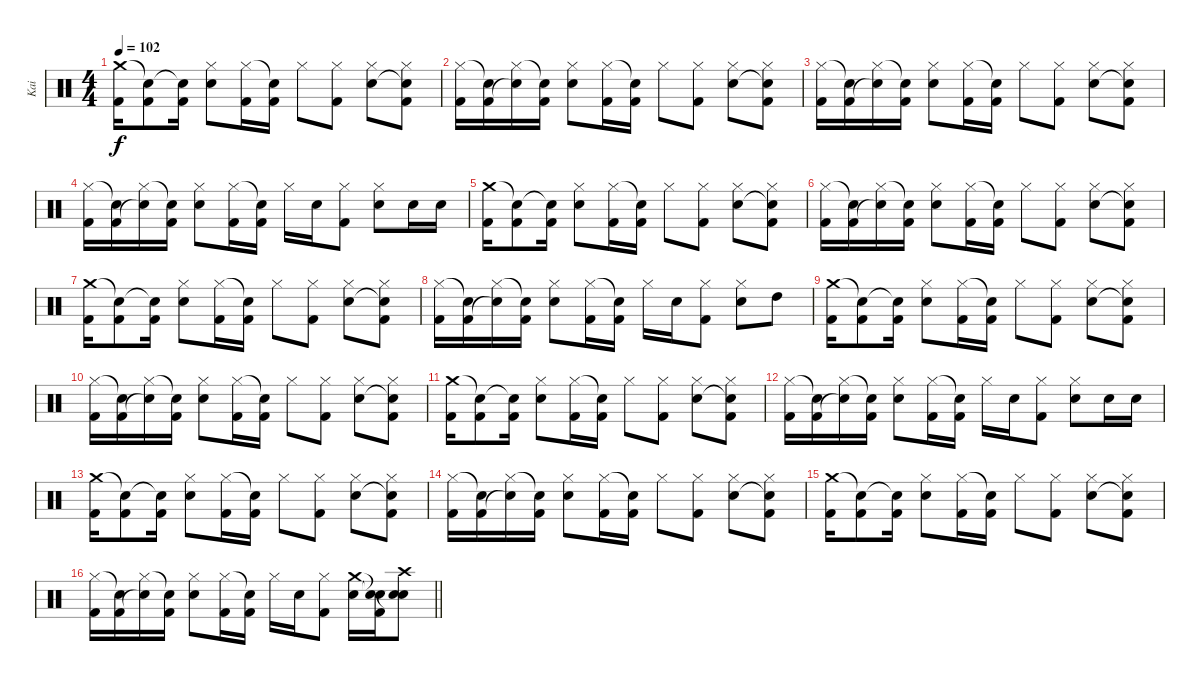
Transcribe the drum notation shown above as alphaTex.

\track ("Kai" "Kai") {instrument percussion}
\staff {score}
\articulation defaults
\ts (4 4)
\tempo 102
\clef neutral
\ks c
("Crash medium (hit)" "Kick (hit) 2").16{dy f} ("Snare (hit)"{t} "Kick (hit) 2").8 ("Snare (hit)"{t} "Kick (hit) 2").16 ("Hi-Hat (closed)" "Snare (hit) 2").8 ("Hi-Hat (closed)" "Kick (hit) 2").16 ("Snare (hit)"{t} "Kick (hit) 2").16 "Hi-Hat (closed)".8 ("Hi-Hat (closed)" "Kick (hit) 2").8 ("Hi-Hat (closed)" "Snare (hit) 2").8 ("Hi-Hat (closed)" "Snare (hit) 2"{t} "Kick (hit) 2").8 |
("Hi-Hat (closed)" "Kick (hit) 2").16 ("Snare (hit)"{t} "Kick (hit) 2").16 ("Hi-Hat (closed)" "Snare (hit)"{t}).16 ("Snare (hit)"{t} "Kick (hit) 2").16 ("Hi-Hat (closed)" "Snare (hit) 2").8 ("Hi-Hat (closed)" "Kick (hit) 2").16 ("Snare (hit)"{t} "Kick (hit) 2").16 "Hi-Hat (closed)".8 ("Hi-Hat (closed)" "Kick (hit) 2").8 ("Hi-Hat (closed)" "Snare (hit) 2").8 ("Hi-Hat (closed)" "Snare (hit) 2"{t} "Kick (hit) 2").8 |
("Hi-Hat (closed)" "Kick (hit) 2").16 ("Snare (hit)"{t} "Kick (hit) 2").16 ("Hi-Hat (closed)" "Snare (hit)"{t}).16 ("Snare (hit)"{t} "Kick (hit) 2").16 ("Hi-Hat (closed)" "Snare (hit) 2").8 ("Hi-Hat (closed)" "Kick (hit) 2").16 ("Snare (hit)"{t} "Kick (hit) 2").16 "Hi-Hat (closed)".8 ("Hi-Hat (closed)" "Kick (hit) 2").8 ("Hi-Hat (closed)" "Snare (hit) 2").8 ("Hi-Hat (closed)" "Snare (hit) 2"{t} "Kick (hit) 2").8 |
("Hi-Hat (closed)" "Kick (hit) 2").16 ("Snare (hit)"{t} "Kick (hit) 2").16 ("Hi-Hat (closed)" "Snare (hit)"{t}).16 ("Snare (hit)"{t} "Kick (hit) 2").16 ("Hi-Hat (closed)" "Snare (hit) 2").8 ("Hi-Hat (closed)" "Kick (hit) 2").16 ("Snare (hit)"{t} "Kick (hit) 2").16 "Hi-Hat (closed)".16 "Snare (hit) 2".16 ("Hi-Hat (closed)" "Kick (hit) 2").8 ("Hi-Hat (closed)" "Snare (hit) 2").8 "Snare (hit) 2".16 "Snare (hit) 2".16 |
("Crash medium (hit)" "Kick (hit) 2").16 ("Snare (hit)"{t} "Kick (hit) 2").8 ("Snare (hit)"{t} "Kick (hit) 2").16 ("Hi-Hat (closed)" "Snare (hit) 2").8 ("Hi-Hat (closed)" "Kick (hit) 2").16 ("Snare (hit)"{t} "Kick (hit) 2").16 "Hi-Hat (closed)".8 ("Hi-Hat (closed)" "Kick (hit) 2").8 ("Hi-Hat (closed)" "Snare (hit) 2").8 ("Hi-Hat (closed)" "Snare (hit) 2"{t} "Kick (hit) 2").8 |
("Hi-Hat (closed)" "Kick (hit) 2").16 ("Snare (hit)"{t} "Kick (hit) 2").16 ("Hi-Hat (closed)" "Snare (hit)"{t}).16 ("Snare (hit)"{t} "Kick (hit) 2").16 ("Hi-Hat (closed)" "Snare (hit) 2").8 ("Hi-Hat (closed)" "Kick (hit) 2").16 ("Snare (hit)"{t} "Kick (hit) 2").16 "Hi-Hat (closed)".8 ("Hi-Hat (closed)" "Kick (hit) 2").8 ("Hi-Hat (closed)" "Snare (hit) 2").8 ("Hi-Hat (closed)" "Snare (hit) 2"{t} "Kick (hit) 2").8 |
("Crash medium (hit)" "Kick (hit) 2").16 ("Snare (hit)"{t} "Kick (hit) 2").8 ("Snare (hit)"{t} "Kick (hit) 2").16 ("Hi-Hat (closed)" "Snare (hit) 2").8 ("Hi-Hat (closed)" "Kick (hit) 2").16 ("Snare (hit)"{t} "Kick (hit) 2").16 "Hi-Hat (closed)".8 ("Hi-Hat (closed)" "Kick (hit) 2").8 ("Hi-Hat (closed)" "Snare (hit) 2").8 ("Hi-Hat (closed)" "Snare (hit) 2"{t} "Kick (hit) 2").8 |
("Hi-Hat (closed)" "Kick (hit) 2").16 ("Snare (hit)"{t} "Kick (hit) 2").16 ("Hi-Hat (closed)" "Snare (hit)"{t}).16 ("Snare (hit)"{t} "Kick (hit) 2").16 ("Hi-Hat (closed)" "Snare (hit) 2").8 ("Hi-Hat (closed)" "Kick (hit) 2").16 ("Snare (hit)"{t} "Kick (hit) 2").16 "Hi-Hat (closed)".16 "Snare (hit) 2".16 ("Hi-Hat (closed)" "Kick (hit) 2").8 ("Hi-Hat (closed)" "Snare (hit) 2").8 "High Tom (hit)".8 |
("Crash medium (hit)" "Kick (hit) 2").16 ("Snare (hit)"{t} "Kick (hit) 2").8 ("Snare (hit)"{t} "Kick (hit) 2").16 ("Hi-Hat (closed)" "Snare (hit) 2").8 ("Hi-Hat (closed)" "Kick (hit) 2").16 ("Snare (hit)"{t} "Kick (hit) 2").16 "Hi-Hat (closed)".8 ("Hi-Hat (closed)" "Kick (hit) 2").8 ("Hi-Hat (closed)" "Snare (hit) 2").8 ("Hi-Hat (closed)" "Snare (hit) 2"{t} "Kick (hit) 2").8 |
("Hi-Hat (closed)" "Kick (hit) 2").16 ("Snare (hit)"{t} "Kick (hit) 2").16 ("Hi-Hat (closed)" "Snare (hit)"{t}).16 ("Snare (hit)"{t} "Kick (hit) 2").16 ("Hi-Hat (closed)" "Snare (hit) 2").8 ("Hi-Hat (closed)" "Kick (hit) 2").16 ("Snare (hit)"{t} "Kick (hit) 2").16 "Hi-Hat (closed)".8 ("Hi-Hat (closed)" "Kick (hit) 2").8 ("Hi-Hat (closed)" "Snare (hit) 2").8 ("Hi-Hat (closed)" "Snare (hit) 2"{t} "Kick (hit) 2").8 |
("Crash medium (hit)" "Kick (hit) 2").16 ("Snare (hit)"{t} "Kick (hit) 2").8 ("Snare (hit)"{t} "Kick (hit) 2").16 ("Hi-Hat (closed)" "Snare (hit) 2").8 ("Hi-Hat (closed)" "Kick (hit) 2").16 ("Snare (hit)"{t} "Kick (hit) 2").16 "Hi-Hat (closed)".8 ("Hi-Hat (closed)" "Kick (hit) 2").8 ("Hi-Hat (closed)" "Snare (hit) 2").8 ("Hi-Hat (closed)" "Snare (hit) 2"{t} "Kick (hit) 2").8 |
("Hi-Hat (closed)" "Kick (hit) 2").16 ("Snare (hit)"{t} "Kick (hit) 2").16 ("Hi-Hat (closed)" "Snare (hit)"{t}).16 ("Snare (hit)"{t} "Kick (hit) 2").16 ("Hi-Hat (closed)" "Snare (hit) 2").8 ("Hi-Hat (closed)" "Kick (hit) 2").16 ("Snare (hit)"{t} "Kick (hit) 2").16 "Hi-Hat (closed)".16 "Snare (hit) 2".16 ("Hi-Hat (closed)" "Kick (hit) 2").8 ("Hi-Hat (closed)" "Snare (hit) 2").8 "Snare (hit) 2".16 "Snare (hit) 2".16 |
("Crash medium (hit)" "Kick (hit) 2").16 ("Snare (hit)"{t} "Kick (hit) 2").8 ("Snare (hit)"{t} "Kick (hit) 2").16 ("Hi-Hat (closed)" "Snare (hit) 2").8 ("Hi-Hat (closed)" "Kick (hit) 2").16 ("Snare (hit)"{t} "Kick (hit) 2").16 "Hi-Hat (closed)".8 ("Hi-Hat (closed)" "Kick (hit) 2").8 ("Hi-Hat (closed)" "Snare (hit) 2").8 ("Hi-Hat (closed)" "Snare (hit) 2"{t} "Kick (hit) 2").8 |
("Hi-Hat (closed)" "Kick (hit) 2").16 ("Snare (hit)"{t} "Kick (hit) 2").16 ("Hi-Hat (closed)" "Snare (hit)"{t}).16 ("Snare (hit)"{t} "Kick (hit) 2").16 ("Hi-Hat (closed)" "Snare (hit) 2").8 ("Hi-Hat (closed)" "Kick (hit) 2").16 ("Snare (hit)"{t} "Kick (hit) 2").16 "Hi-Hat (closed)".8 ("Hi-Hat (closed)" "Kick (hit) 2").8 ("Hi-Hat (closed)" "Snare (hit) 2").8 ("Hi-Hat (closed)" "Snare (hit) 2"{t} "Kick (hit) 2").8 |
("Crash medium (hit)" "Kick (hit) 2").16 ("Snare (hit)"{t} "Kick (hit) 2").8 ("Snare (hit)"{t} "Kick (hit) 2").16 ("Hi-Hat (closed)" "Snare (hit) 2").8 ("Hi-Hat (closed)" "Kick (hit) 2").16 ("Snare (hit)"{t} "Kick (hit) 2").16 "Hi-Hat (closed)".8 ("Hi-Hat (closed)" "Kick (hit) 2").8 ("Hi-Hat (closed)" "Snare (hit) 2").8 ("Hi-Hat (closed)" "Snare (hit) 2"{t} "Kick (hit) 2").8 |
\barLineRight lightlight
("Hi-Hat (closed)" "Kick (hit) 2").16 ("Snare (hit)"{t} "Kick (hit) 2").16 ("Hi-Hat (closed)" "Snare (hit)"{t}).16 ("Snare (hit)"{t} "Kick (hit) 2").16 ("Hi-Hat (closed)" "Snare (hit) 2").8 ("Hi-Hat (closed)" "Kick (hit) 2").16 ("Snare (hit)"{t} "Kick (hit) 2").16 "Hi-Hat (closed)".16 "Snare (hit) 2".16 ("Hi-Hat (closed)" "Kick (hit) 2").8 ("Crash medium (hit)" "Snare (hit) 2").16 ("Snare (hit)"{t} "Snare (hit)"{t} "Kick (hit) 2").16 ("Crash high (hit)" "Snare (hit) 2" "Snare (hit)"{t}).8
